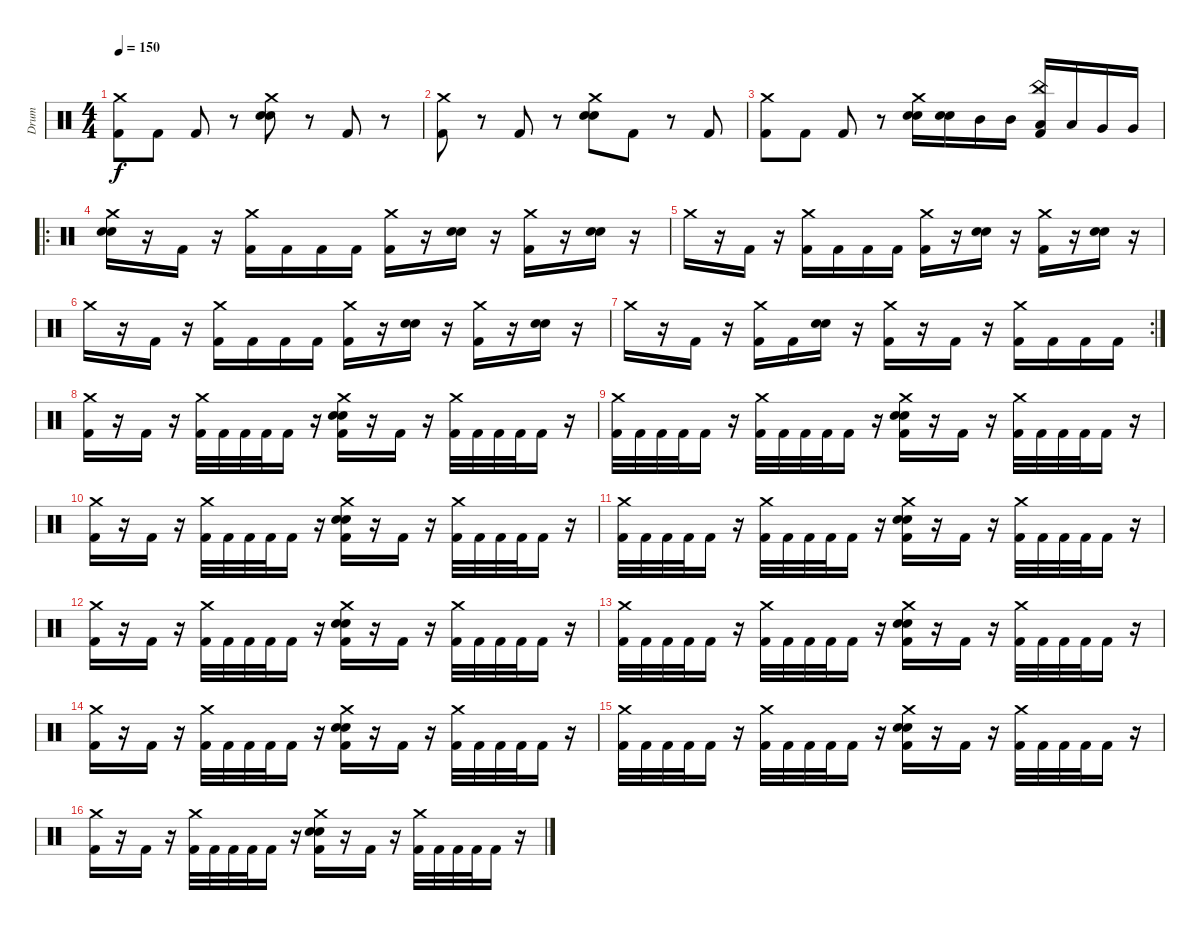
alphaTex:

\track ("Drum" "Drum") {instrument percussion}
\staff {score}
\articulation defaults
\ts (4 4)
\tempo 150
\clef neutral
\ks c
("Crash medium (hit)" "Kick (hit) 2").8{dy f} "Kick (hit) 2".8 "Kick (hit) 2".8 r.8 ("Crash medium (hit)" "Snare (hit) 2" "Electric Snare (hit)").8 r.8 "Kick (hit) 2".8 r.8 |
("Crash medium (hit)" "Kick (hit) 2").8 r.8 "Kick (hit) 2".8 r.8 ("Crash medium (hit)" "Snare (hit) 2" "Electric Snare (hit)").8 "Kick (hit) 2".8 r.8 "Kick (hit) 2".8 |
("Crash medium (hit)" "Kick (hit) 2").8 "Kick (hit) 2".8 "Kick (hit) 2".8 r.8 ("Crash medium (hit)" "Snare (hit) 2" "Electric Snare (hit)").16 ("Snare (hit) 2" "Electric Snare (hit)").16 "Mid Tom (hit)".16 "Mid Tom (hit)".16 ("China (hit)" "Low Tom (hit)" "Kick (hit) 2").16 "Low Tom (hit)".16 "Very Low Tom (hit)".16 "Very Low Tom (hit)".16 |
\ro
("Crash medium (hit)" "Snare (hit) 2" "Electric Snare (hit)").16 r.16 "Kick (hit) 2".16 r.16 ("Crash medium (hit)" "Kick (hit) 2").16 "Kick (hit) 2".16 "Kick (hit) 2".16 "Kick (hit) 2".16 ("Crash medium (hit)" "Kick (hit) 2").16 r.16 ("Snare (hit) 2" "Electric Snare (hit)").16 r.16 ("Crash medium (hit)" "Kick (hit) 2").16 r.16 ("Snare (hit) 2" "Electric Snare (hit)").16 r.16 |
"Crash medium (hit)".16 r.16 "Kick (hit) 2".16 r.16 ("Crash medium (hit)" "Kick (hit) 2").16 "Kick (hit) 2".16 "Kick (hit) 2".16 "Kick (hit) 2".16 ("Crash medium (hit)" "Kick (hit) 2").16 r.16 ("Snare (hit) 2" "Electric Snare (hit)").16 r.16 ("Crash medium (hit)" "Kick (hit) 2").16 r.16 ("Snare (hit) 2" "Electric Snare (hit)").16 r.16 |
"Crash medium (hit)".16 r.16 "Kick (hit) 2".16 r.16 ("Crash medium (hit)" "Kick (hit) 2").16 "Kick (hit) 2".16 "Kick (hit) 2".16 "Kick (hit) 2".16 ("Crash medium (hit)" "Kick (hit) 2").16 r.16 ("Snare (hit) 2" "Electric Snare (hit)").16 r.16 ("Crash medium (hit)" "Kick (hit) 2").16 r.16 ("Snare (hit) 2" "Electric Snare (hit)").16 r.16 |
\rc 2 "Crash medium (hit)".16
r.16 "Kick (hit) 2".16 r.16 ("Crash medium (hit)" "Kick (hit) 2").16 "Kick (hit) 2".16 ("Snare (hit) 2" "Electric Snare (hit)").16 r.16 ("Crash medium (hit)" "Kick (hit) 2").16 r.16 "Kick (hit) 2".16 r.16 ("Crash medium (hit)" "Kick (hit) 2").16 "Kick (hit) 2".16 "Kick (hit) 2".16 "Kick (hit) 2".16 |
("Crash medium (hit)" "Kick (hit) 2").16 r.16 "Kick (hit) 2".16 r.16 ("Crash medium (hit)" "Kick (hit) 2").32 "Kick (hit) 2".32 "Kick (hit) 2".32 "Kick (hit) 2".32 "Kick (hit) 2".16 r.16 ("Crash medium (hit)" "Snare (hit) 2" "Electric Snare (hit)" "Kick (hit) 2").16 r.16 "Kick (hit) 2".16 r.16 ("Crash medium (hit)" "Kick (hit) 2").32 "Kick (hit) 2".32 "Kick (hit) 2".32 "Kick (hit) 2".32 "Kick (hit) 2".16 r.16 |
("Crash medium (hit)" "Kick (hit) 2").32 "Kick (hit) 2".32 "Kick (hit) 2".32 "Kick (hit) 2".32 "Kick (hit) 2".16 r.16 ("Crash medium (hit)" "Kick (hit) 2").32 "Kick (hit) 2".32 "Kick (hit) 2".32 "Kick (hit) 2".32 "Kick (hit) 2".16 r.16 ("Crash medium (hit)" "Snare (hit) 2" "Electric Snare (hit)" "Kick (hit) 2").16 r.16 "Kick (hit) 2".16 r.16 ("Crash medium (hit)" "Kick (hit) 2").32 "Kick (hit) 2".32 "Kick (hit) 2".32 "Kick (hit) 2".32 "Kick (hit) 2".16 r.16 |
("Crash medium (hit)" "Kick (hit) 2").16 r.16 "Kick (hit) 2".16 r.16 ("Crash medium (hit)" "Kick (hit) 2").32 "Kick (hit) 2".32 "Kick (hit) 2".32 "Kick (hit) 2".32 "Kick (hit) 2".16 r.16 ("Crash medium (hit)" "Snare (hit) 2" "Electric Snare (hit)" "Kick (hit) 2").16 r.16 "Kick (hit) 2".16 r.16 ("Crash medium (hit)" "Kick (hit) 2").32 "Kick (hit) 2".32 "Kick (hit) 2".32 "Kick (hit) 2".32 "Kick (hit) 2".16 r.16 |
("Crash medium (hit)" "Kick (hit) 2").32 "Kick (hit) 2".32 "Kick (hit) 2".32 "Kick (hit) 2".32 "Kick (hit) 2".16 r.16 ("Crash medium (hit)" "Kick (hit) 2").32 "Kick (hit) 2".32 "Kick (hit) 2".32 "Kick (hit) 2".32 "Kick (hit) 2".16 r.16 ("Crash medium (hit)" "Snare (hit) 2" "Electric Snare (hit)" "Kick (hit) 2").16 r.16 "Kick (hit) 2".16 r.16 ("Crash medium (hit)" "Kick (hit) 2").32 "Kick (hit) 2".32 "Kick (hit) 2".32 "Kick (hit) 2".32 "Kick (hit) 2".16 r.16 |
("Crash medium (hit)" "Kick (hit) 2").16 r.16 "Kick (hit) 2".16 r.16 ("Crash medium (hit)" "Kick (hit) 2").32 "Kick (hit) 2".32 "Kick (hit) 2".32 "Kick (hit) 2".32 "Kick (hit) 2".16 r.16 ("Crash medium (hit)" "Snare (hit) 2" "Electric Snare (hit)" "Kick (hit) 2").16 r.16 "Kick (hit) 2".16 r.16 ("Crash medium (hit)" "Kick (hit) 2").32 "Kick (hit) 2".32 "Kick (hit) 2".32 "Kick (hit) 2".32 "Kick (hit) 2".16 r.16 |
("Crash medium (hit)" "Kick (hit) 2").32 "Kick (hit) 2".32 "Kick (hit) 2".32 "Kick (hit) 2".32 "Kick (hit) 2".16 r.16 ("Crash medium (hit)" "Kick (hit) 2").32 "Kick (hit) 2".32 "Kick (hit) 2".32 "Kick (hit) 2".32 "Kick (hit) 2".16 r.16 ("Crash medium (hit)" "Snare (hit) 2" "Electric Snare (hit)" "Kick (hit) 2").16 r.16 "Kick (hit) 2".16 r.16 ("Crash medium (hit)" "Kick (hit) 2").32 "Kick (hit) 2".32 "Kick (hit) 2".32 "Kick (hit) 2".32 "Kick (hit) 2".16 r.16 |
("Crash medium (hit)" "Kick (hit) 2").16 r.16 "Kick (hit) 2".16 r.16 ("Crash medium (hit)" "Kick (hit) 2").32 "Kick (hit) 2".32 "Kick (hit) 2".32 "Kick (hit) 2".32 "Kick (hit) 2".16 r.16 ("Crash medium (hit)" "Snare (hit) 2" "Electric Snare (hit)" "Kick (hit) 2").16 r.16 "Kick (hit) 2".16 r.16 ("Crash medium (hit)" "Kick (hit) 2").32 "Kick (hit) 2".32 "Kick (hit) 2".32 "Kick (hit) 2".32 "Kick (hit) 2".16 r.16 |
("Crash medium (hit)" "Kick (hit) 2").32 "Kick (hit) 2".32 "Kick (hit) 2".32 "Kick (hit) 2".32 "Kick (hit) 2".16 r.16 ("Crash medium (hit)" "Kick (hit) 2").32 "Kick (hit) 2".32 "Kick (hit) 2".32 "Kick (hit) 2".32 "Kick (hit) 2".16 r.16 ("Crash medium (hit)" "Snare (hit) 2" "Electric Snare (hit)" "Kick (hit) 2").16 r.16 "Kick (hit) 2".16 r.16 ("Crash medium (hit)" "Kick (hit) 2").32 "Kick (hit) 2".32 "Kick (hit) 2".32 "Kick (hit) 2".32 "Kick (hit) 2".16 r.16 |
("Crash medium (hit)" "Kick (hit) 2").16 r.16 "Kick (hit) 2".16 r.16 ("Crash medium (hit)" "Kick (hit) 2").32 "Kick (hit) 2".32 "Kick (hit) 2".32 "Kick (hit) 2".32 "Kick (hit) 2".16 r.16 ("Crash medium (hit)" "Snare (hit) 2" "Electric Snare (hit)" "Kick (hit) 2").16 r.16 "Kick (hit) 2".16 r.16 ("Crash medium (hit)" "Kick (hit) 2").32 "Kick (hit) 2".32 "Kick (hit) 2".32 "Kick (hit) 2".32 "Kick (hit) 2".16 r.16
